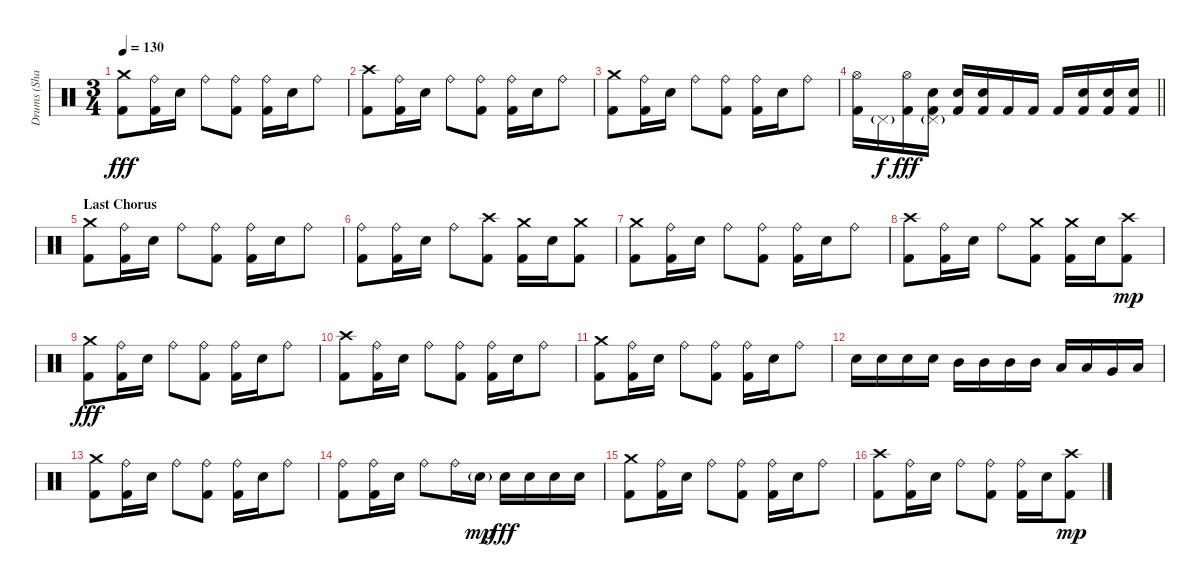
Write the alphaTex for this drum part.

\track ("Drums (Shawn)" "Drums (Sha") {instrument percussion}
\staff {score}
\articulation defaults
\ts (3 4)
\tempo 130
\clef neutral
\ks c
("Crash medium (hit)" "Kick (hit) 2").8{dy fff} ("Ride (bell)" "Kick (hit) 2").16 "Snare (hit) 2".16 "Ride (bell)".8 ("Ride (bell)" "Kick (hit) 2").8 ("Ride (bell)" "Kick (hit) 2").16 "Snare (hit) 2".16 "Ride (bell)".8 |
("Crash high (hit)" "Kick (hit) 2").8 ("Ride (bell)" "Kick (hit) 2").16 "Snare (hit) 2".16 "Ride (bell)".8 ("Ride (bell)" "Kick (hit) 2").8 ("Ride (bell)" "Kick (hit) 2").16 "Snare (hit) 2".16 "Ride (bell)".8 |
("Crash medium (hit)" "Kick (hit) 2").8 ("Ride (bell)" "Kick (hit) 2").16 "Snare (hit) 2".16 "Ride (bell)".8 ("Ride (bell)" "Kick (hit) 2").8 ("Ride (bell)" "Kick (hit) 2").16 "Snare (hit) 2".16 "Ride (bell)".8 |
\barLineRight lightlight
("Hi-Hat (open)" "Kick (hit) 2").16 "Pedal Hi-Hat (hit)"{g}.16{dy f} ("Hi-Hat (open)" "Kick (hit) 2").16{dy fff} ("Pedal Hi-Hat (hit)"{g} "Snare (hit) 2" "Kick (hit) 2").16 ("Snare (hit) 2" "Kick (hit) 2").16 ("Snare (hit) 2" "Kick (hit) 2").16 "Kick (hit) 2".16 "Kick (hit) 2".16 "Kick (hit) 2".16 ("Snare (hit) 2" "Kick (hit) 2").16 ("Snare (hit) 2" "Kick (hit) 2").16 ("Snare (hit) 2" "Kick (hit) 2").16 |
\section ("" "Last Chorus")
("Crash medium (hit)" "Kick (hit) 2").8 ("Ride (bell)" "Kick (hit) 2").16 "Snare (hit) 2".16 "Ride (bell)".8 ("Ride (bell)" "Kick (hit) 2").8 ("Ride (bell)" "Kick (hit) 2").16 "Snare (hit) 2".16 "Ride (bell)".8 |
("Ride (bell)" "Kick (hit) 2").8 ("Ride (bell)" "Kick (hit) 2").16 "Snare (hit) 2".16 "Ride (bell)".8 ("Crash high (hit)" "Kick (hit) 2").8 ("Crash medium (hit)" "Kick (hit) 2").16 "Snare (hit) 2".16 ("Crash medium (hit)" "Kick (hit) 2").8 |
("Crash medium (hit)" "Kick (hit) 2").8 ("Ride (bell)" "Kick (hit) 2").16 "Snare (hit) 2".16 "Ride (bell)".8 ("Ride (bell)" "Kick (hit) 2").8 ("Ride (bell)" "Kick (hit) 2").16 "Snare (hit) 2".16 "Ride (bell)".8 |
("Crash high (hit)" "Kick (hit) 2").8 ("Ride (bell)" "Kick (hit) 2").16 "Snare (hit) 2".16 "Ride (bell)".8 ("Crash medium (hit)" "Kick (hit) 2").8 ("Crash medium (hit)" "Kick (hit) 2").16 "Snare (hit) 2".16 ("Crash high (hit)" "Kick (hit) 2").8{dy mp} |
("Crash medium (hit)" "Kick (hit) 2").8{dy fff} ("Ride (bell)" "Kick (hit) 2").16 "Snare (hit) 2".16 "Ride (bell)".8 ("Ride (bell)" "Kick (hit) 2").8 ("Ride (bell)" "Kick (hit) 2").16 "Snare (hit) 2".16 "Ride (bell)".8 |
("Crash high (hit)" "Kick (hit) 2").8 ("Ride (bell)" "Kick (hit) 2").16 "Snare (hit) 2".16 "Ride (bell)".8 ("Ride (bell)" "Kick (hit) 2").8 ("Ride (bell)" "Kick (hit) 2").16 "Snare (hit) 2".16 "Ride (bell)".8 |
("Crash medium (hit)" "Kick (hit) 2").8 ("Ride (bell)" "Kick (hit) 2").16 "Snare (hit) 2".16 "Ride (bell)".8 ("Ride (bell)" "Kick (hit) 2").8 ("Ride (bell)" "Kick (hit) 2").16 "Snare (hit) 2".16 "Ride (bell)".8 |
"Snare (hit) 2".16 "Snare (hit) 2".16 "Snare (hit) 2".16 "Snare (hit) 2".16 "Mid Tom (hit)".16 "Mid Tom (hit)".16 "Mid Tom (hit)".16 "Mid Tom (hit)".16 "Low Tom (hit)".16 "Low Tom (hit)".16 "Very Low Tom (hit)".16 "Low Floor Tom (hit)".16 |
("Crash medium (hit)" "Kick (hit) 2").8 ("Ride (bell)" "Kick (hit) 2").16 "Snare (hit) 2".16 "Ride (bell)".8 ("Ride (bell)" "Kick (hit) 2").8 ("Ride (bell)" "Kick (hit) 2").16 "Snare (hit) 2".16 "Ride (bell)".8 |
("Ride (bell)" "Kick (hit) 2").8 ("Ride (bell)" "Kick (hit) 2").16 "Snare (hit) 2".16 "Ride (bell)".8 "Ride (bell)".16 "Snare (hit) 2"{g}.16{dy mp} "Snare (hit) 2".16{dy fff} "Snare (hit) 2".16 "Snare (hit) 2".16 "Snare (hit) 2".16 |
("Crash medium (hit)" "Kick (hit) 2").8 ("Ride (bell)" "Kick (hit) 2").16 "Snare (hit) 2".16 "Ride (bell)".8 ("Ride (bell)" "Kick (hit) 2").8 ("Ride (bell)" "Kick (hit) 2").16 "Snare (hit) 2".16 "Ride (bell)".8 |
("Crash high (hit)" "Kick (hit) 2").8 ("Ride (bell)" "Kick (hit) 2").16 "Snare (hit) 2".16 "Ride (bell)".8 ("Ride (bell)" "Kick (hit) 2").8 ("Ride (bell)" "Kick (hit) 2").16 "Snare (hit) 2".16 ("Crash high (hit)" "Kick (hit) 2").8{dy mp}
